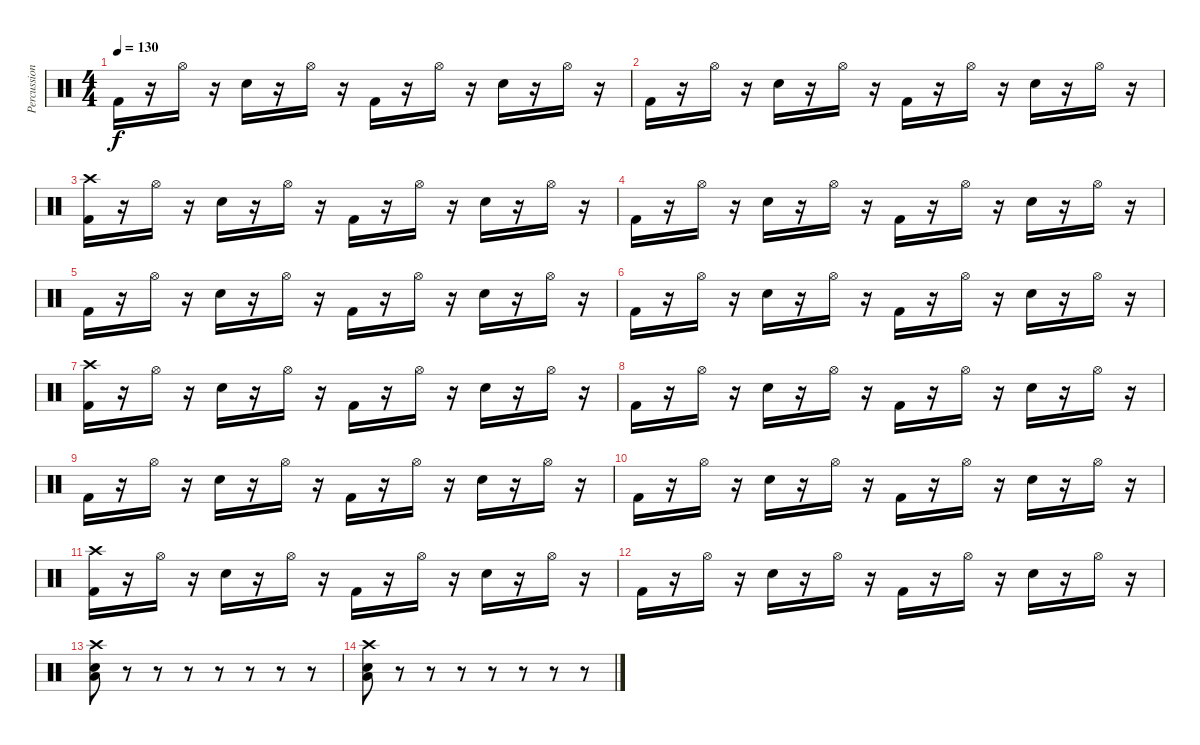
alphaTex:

\track ("Percussion" "Percussion") {instrument percussion}
\staff {score}
\articulation defaults
\ts (4 4)
\tempo 130
\clef neutral
\ks c "Kick (hit) 2".16{dy f}
r.16 "Hi-Hat (open)".16 r.16 "Snare (hit) 2".16 r.16 "Hi-Hat (open)".16 r.16 "Kick (hit) 2".16 r.16 "Hi-Hat (open)".16 r.16 "Snare (hit) 2".16 r.16 "Hi-Hat (open)".16 r.16 |
"Kick (hit) 2".16 r.16 "Hi-Hat (open)".16 r.16 "Snare (hit) 2".16 r.16 "Hi-Hat (open)".16 r.16 "Kick (hit) 2".16 r.16 "Hi-Hat (open)".16 r.16 "Snare (hit) 2".16 r.16 "Hi-Hat (open)".16 r.16 |
("Crash high (hit)" "Kick (hit) 2").16 r.16 "Hi-Hat (open)".16 r.16 "Snare (hit) 2".16 r.16 "Hi-Hat (open)".16 r.16 "Kick (hit) 2".16 r.16 "Hi-Hat (open)".16 r.16 "Snare (hit) 2".16 r.16 "Hi-Hat (open)".16 r.16 |
"Kick (hit) 2".16 r.16 "Hi-Hat (open)".16 r.16 "Snare (hit) 2".16 r.16 "Hi-Hat (open)".16 r.16 "Kick (hit) 2".16 r.16 "Hi-Hat (open)".16 r.16 "Snare (hit) 2".16 r.16 "Hi-Hat (open)".16 r.16 |
"Kick (hit) 2".16 r.16 "Hi-Hat (open)".16 r.16 "Snare (hit) 2".16 r.16 "Hi-Hat (open)".16 r.16 "Kick (hit) 2".16 r.16 "Hi-Hat (open)".16 r.16 "Snare (hit) 2".16 r.16 "Hi-Hat (open)".16 r.16 |
"Kick (hit) 2".16 r.16 "Hi-Hat (open)".16 r.16 "Snare (hit) 2".16 r.16 "Hi-Hat (open)".16 r.16 "Kick (hit) 2".16 r.16 "Hi-Hat (open)".16 r.16 "Snare (hit) 2".16 r.16 "Hi-Hat (open)".16 r.16 |
("Crash high (hit)" "Kick (hit) 2").16 r.16 "Hi-Hat (open)".16 r.16 "Snare (hit) 2".16 r.16 "Hi-Hat (open)".16 r.16 "Kick (hit) 2".16 r.16 "Hi-Hat (open)".16 r.16 "Snare (hit) 2".16 r.16 "Hi-Hat (open)".16 r.16 |
"Kick (hit) 2".16 r.16 "Hi-Hat (open)".16 r.16 "Snare (hit) 2".16 r.16 "Hi-Hat (open)".16 r.16 "Kick (hit) 2".16 r.16 "Hi-Hat (open)".16 r.16 "Snare (hit) 2".16 r.16 "Hi-Hat (open)".16 r.16 |
"Kick (hit) 2".16 r.16 "Hi-Hat (open)".16 r.16 "Snare (hit) 2".16 r.16 "Hi-Hat (open)".16 r.16 "Kick (hit) 2".16 r.16 "Hi-Hat (open)".16 r.16 "Snare (hit) 2".16 r.16 "Hi-Hat (open)".16 r.16 |
"Kick (hit) 2".16 r.16 "Hi-Hat (open)".16 r.16 "Snare (hit) 2".16 r.16 "Hi-Hat (open)".16 r.16 "Kick (hit) 2".16 r.16 "Hi-Hat (open)".16 r.16 "Snare (hit) 2".16 r.16 "Hi-Hat (open)".16 r.16 |
("Crash high (hit)" "Kick (hit) 2").16 r.16 "Hi-Hat (open)".16 r.16 "Snare (hit) 2".16 r.16 "Hi-Hat (open)".16 r.16 "Kick (hit) 2".16 r.16 "Hi-Hat (open)".16 r.16 "Snare (hit) 2".16 r.16 "Hi-Hat (open)".16 r.16 |
"Kick (hit) 2".16 r.16 "Hi-Hat (open)".16 r.16 "Snare (hit) 2".16 r.16 "Hi-Hat (open)".16 r.16 "Kick (hit) 2".16 r.16 "Hi-Hat (open)".16 r.16 "Snare (hit) 2".16 r.16 "Hi-Hat (open)".16 r.16 |
("Crash high (hit)" "Low Tom (hit)" "Snare (hit) 2").8 r.8 r.8 r.8 r.8 r.8 r.8 r.8 |
("Crash high (hit)" "Low Tom (hit)" "Snare (hit) 2").8 r.8 r.8 r.8 r.8 r.8 r.8 r.8
